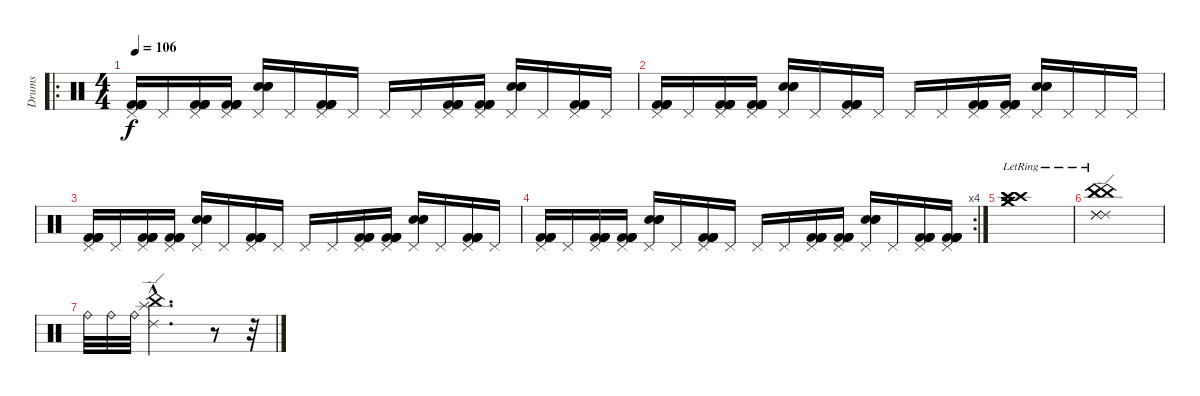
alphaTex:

\track ("Drums" "Drums") {instrument percussion}
\staff {score}
\articulation defaults
\ro
\ts (4 4)
\tempo 106
\clef neutral
\ks c
("Pedal Hi-Hat (hit)" "Kick (hit) 2" "Kick (hit) 2" "Kick (hit) 2" "Kick (hit) 2").16{dy f} "Pedal Hi-Hat (hit)".16 ("Pedal Hi-Hat (hit)" "Kick (hit) 2" "Kick (hit) 2" "Kick (hit) 2" "Kick (hit) 2").16 ("Pedal Hi-Hat (hit)" "Kick (hit) 2" "Kick (hit) 2" "Kick (hit) 2" "Kick (hit) 2").16 ("Pedal Hi-Hat (hit)" "Electric Snare (hit)" "Electric Snare (hit)" "Electric Snare (hit)").16 "Pedal Hi-Hat (hit)".16 ("Pedal Hi-Hat (hit)" "Kick (hit) 2" "Kick (hit) 2" "Kick (hit) 2" "Kick (hit) 2").16 "Pedal Hi-Hat (hit)".16 "Pedal Hi-Hat (hit)".16 "Pedal Hi-Hat (hit)".16 ("Pedal Hi-Hat (hit)" "Kick (hit) 2" "Kick (hit) 2" "Kick (hit) 2" "Kick (hit) 2").16 ("Pedal Hi-Hat (hit)" "Kick (hit) 2" "Kick (hit) 2" "Kick (hit) 2" "Kick (hit) 2").16 ("Pedal Hi-Hat (hit)" "Electric Snare (hit)" "Electric Snare (hit)" "Electric Snare (hit)").16 "Pedal Hi-Hat (hit)".16 ("Pedal Hi-Hat (hit)" "Kick (hit) 2" "Kick (hit) 2" "Kick (hit) 2" "Kick (hit) 2").16 "Pedal Hi-Hat (hit)".16 |
("Pedal Hi-Hat (hit)" "Kick (hit) 2" "Kick (hit) 2" "Kick (hit) 2" "Kick (hit) 2").16 "Pedal Hi-Hat (hit)".16 ("Pedal Hi-Hat (hit)" "Kick (hit) 2" "Kick (hit) 2" "Kick (hit) 2" "Kick (hit) 2").16 ("Pedal Hi-Hat (hit)" "Kick (hit) 2" "Kick (hit) 2" "Kick (hit) 2" "Kick (hit) 2").16 ("Pedal Hi-Hat (hit)" "Electric Snare (hit)" "Electric Snare (hit)" "Electric Snare (hit)").16 "Pedal Hi-Hat (hit)".16 ("Pedal Hi-Hat (hit)" "Kick (hit) 2" "Kick (hit) 2" "Kick (hit) 2" "Kick (hit) 2").16 "Pedal Hi-Hat (hit)".16 "Pedal Hi-Hat (hit)".16 "Pedal Hi-Hat (hit)".16 ("Pedal Hi-Hat (hit)" "Kick (hit) 2" "Kick (hit) 2" "Kick (hit) 2" "Kick (hit) 2").16 ("Pedal Hi-Hat (hit)" "Kick (hit) 2" "Kick (hit) 2" "Kick (hit) 2" "Kick (hit) 2").16 ("Pedal Hi-Hat (hit)" "Electric Snare (hit)" "Electric Snare (hit)" "Electric Snare (hit)").16 "Pedal Hi-Hat (hit)".16 "Pedal Hi-Hat (hit)".16 "Pedal Hi-Hat (hit)".16 |
("Pedal Hi-Hat (hit)" "Kick (hit) 2" "Kick (hit) 2" "Kick (hit) 2" "Kick (hit) 2").16 "Pedal Hi-Hat (hit)".16 ("Pedal Hi-Hat (hit)" "Kick (hit) 2" "Kick (hit) 2" "Kick (hit) 2" "Kick (hit) 2").16 ("Pedal Hi-Hat (hit)" "Kick (hit) 2" "Kick (hit) 2" "Kick (hit) 2" "Kick (hit) 2").16 ("Pedal Hi-Hat (hit)" "Electric Snare (hit)" "Electric Snare (hit)" "Electric Snare (hit)").16 "Pedal Hi-Hat (hit)".16 ("Pedal Hi-Hat (hit)" "Kick (hit) 2" "Kick (hit) 2" "Kick (hit) 2" "Kick (hit) 2").16 "Pedal Hi-Hat (hit)".16 "Pedal Hi-Hat (hit)".16 "Pedal Hi-Hat (hit)".16 ("Pedal Hi-Hat (hit)" "Kick (hit) 2" "Kick (hit) 2" "Kick (hit) 2" "Kick (hit) 2").16 ("Pedal Hi-Hat (hit)" "Kick (hit) 2" "Kick (hit) 2" "Kick (hit) 2" "Kick (hit) 2").16 ("Pedal Hi-Hat (hit)" "Electric Snare (hit)" "Electric Snare (hit)" "Electric Snare (hit)").16 "Pedal Hi-Hat (hit)".16 ("Pedal Hi-Hat (hit)" "Kick (hit) 2" "Kick (hit) 2" "Kick (hit) 2" "Kick (hit) 2").16 "Pedal Hi-Hat (hit)".16 |
\rc 4
("Pedal Hi-Hat (hit)" "Kick (hit) 2" "Kick (hit) 2" "Kick (hit) 2" "Kick (hit) 2").16 "Pedal Hi-Hat (hit)".16 ("Pedal Hi-Hat (hit)" "Kick (hit) 2" "Kick (hit) 2" "Kick (hit) 2" "Kick (hit) 2").16 ("Pedal Hi-Hat (hit)" "Kick (hit) 2" "Kick (hit) 2" "Kick (hit) 2" "Kick (hit) 2").16 ("Pedal Hi-Hat (hit)" "Electric Snare (hit)" "Electric Snare (hit)" "Electric Snare (hit)").16 "Pedal Hi-Hat (hit)".16 ("Pedal Hi-Hat (hit)" "Kick (hit) 2" "Kick (hit) 2" "Kick (hit) 2" "Kick (hit) 2").16 "Pedal Hi-Hat (hit)".16 "Pedal Hi-Hat (hit)".16 "Pedal Hi-Hat (hit)".16 ("Pedal Hi-Hat (hit)" "Kick (hit) 2" "Kick (hit) 2" "Kick (hit) 2" "Kick (hit) 2").16 ("Pedal Hi-Hat (hit)" "Kick (hit) 2" "Kick (hit) 2" "Kick (hit) 2" "Kick (hit) 2").16 ("Pedal Hi-Hat (hit)" "Electric Snare (hit)" "Electric Snare (hit)" "Electric Snare (hit)").16 "Pedal Hi-Hat (hit)".16 ("Pedal Hi-Hat (hit)" "Kick (hit) 2" "Kick (hit) 2" "Kick (hit) 2" "Kick (hit) 2").16 ("Pedal Hi-Hat (hit)" "Kick (hit) 2" "Kick (hit) 2" "Kick (hit) 2" "Kick (hit) 2").16 |
("Crash medium (hit)"{lr} "Crash medium (hit)"{lr} "Crash medium (hit)"{lr} "Crash high (hit)"{lr} "Crash high (hit)"{lr} "Crash high (hit)"{lr}).1 |
("China (hit)"{lr} "China (hit)"{lr} "China (hit)"{lr} "Ride (edge) 2"{lr} "Ride (edge) 2"{lr} "Ride (edge) 2"{lr}).1 |
"Ride (bell)".32 "Ride (bell)".32 "Ride (bell)".32 ("Splash (hit)"{hac} "Ride (edge) 2"{hac} "China (hit)"{hac}).2{d} r.8 r.32
